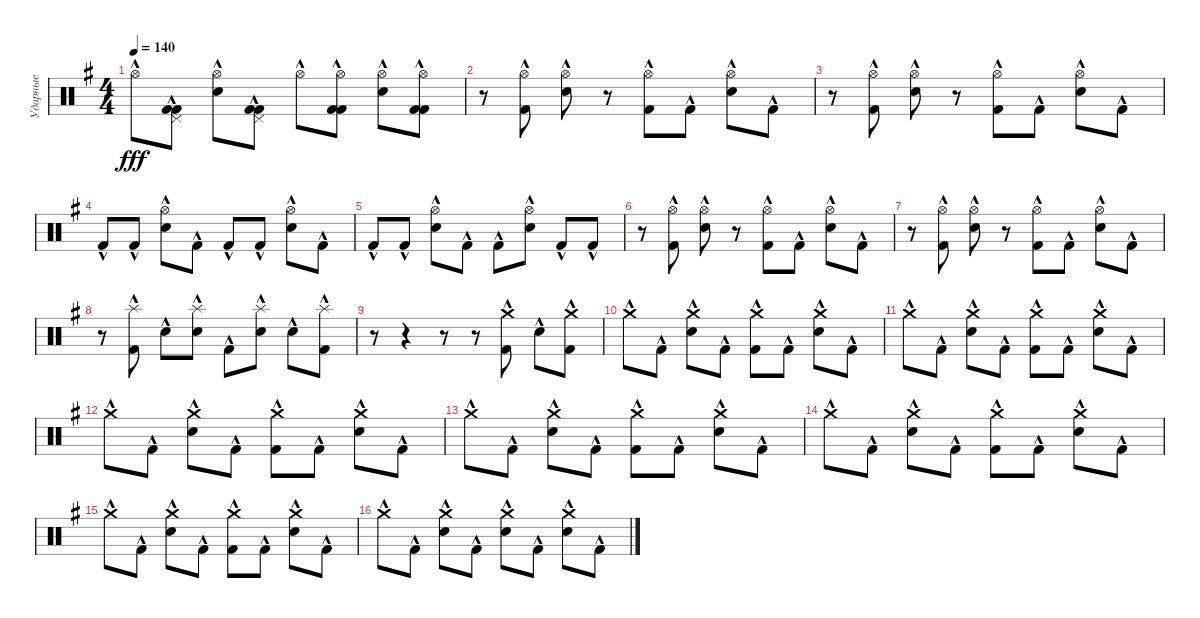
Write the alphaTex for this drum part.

\track ("Ударные" "Ударные") {instrument percussion}
\staff {score}
\articulation defaults
\ts (4 4)
\tempo 140
\clef neutral
\ks g "Hi-Hat (open)"{hac}.8{dy fff}
("Pedal Hi-Hat (hit)"{hac} "Kick (hit) 2"{hac} "Kick (hit) 2"{hac}).8 ("Hi-Hat (open)"{hac} "Electric Snare (hit)"{hac}).8 ("Pedal Hi-Hat (hit)"{hac} "Kick (hit) 2"{hac} "Kick (hit) 2"{hac}).8 "Hi-Hat (open)"{hac}.8 ("Hi-Hat (open)"{hac} "Kick (hit) 2"{hac} "Kick (hit) 2"{hac}).8 ("Hi-Hat (open)"{hac} "Electric Snare (hit)"{hac}).8 ("Hi-Hat (open)"{hac} "Kick (hit) 2"{hac} "Kick (hit) 2"{hac}).8 |
r.8 ("Hi-Hat (open)"{hac} "Kick (hit) 2"{hac}).8 ("Hi-Hat (open)"{hac} "Electric Snare (hit)"{hac}).8 r.8 ("Hi-Hat (open)"{hac} "Kick (hit) 2"{hac}).8 "Kick (hit) 2"{hac}.8 ("Hi-Hat (open)"{hac} "Electric Snare (hit)"{hac}).8 "Kick (hit) 2"{hac}.8 |
r.8 ("Hi-Hat (open)"{hac} "Kick (hit) 2"{hac}).8 ("Hi-Hat (open)"{hac} "Electric Snare (hit)"{hac}).8 r.8 ("Hi-Hat (open)"{hac} "Kick (hit) 2"{hac}).8 "Kick (hit) 2"{hac}.8 ("Hi-Hat (open)"{hac} "Electric Snare (hit)"{hac}).8 "Kick (hit) 2"{hac}.8 |
"Kick (hit) 2"{hac}.8 "Kick (hit) 2"{hac}.8 ("Hi-Hat (open)"{hac} "Electric Snare (hit)"{hac}).8 "Kick (hit) 2"{hac}.8 "Kick (hit) 2"{hac}.8 "Kick (hit) 2"{hac}.8 ("Hi-Hat (open)"{hac} "Electric Snare (hit)"{hac}).8 "Kick (hit) 2"{hac}.8 |
"Kick (hit) 2"{hac}.8 "Kick (hit) 2"{hac}.8 ("Hi-Hat (open)"{hac} "Electric Snare (hit)"{hac}).8 "Kick (hit) 2"{hac}.8 "Kick (hit) 2"{hac}.8 ("Hi-Hat (open)"{hac} "Electric Snare (hit)"{hac}).8 "Kick (hit) 2"{hac}.8 "Kick (hit) 2"{hac}.8 |
r.8 ("Hi-Hat (open)"{hac} "Kick (hit) 2"{hac}).8 ("Hi-Hat (open)"{hac} "Electric Snare (hit)"{hac}).8 r.8 ("Hi-Hat (open)"{hac} "Kick (hit) 2"{hac}).8 "Kick (hit) 2"{hac}.8 ("Hi-Hat (open)"{hac} "Electric Snare (hit)"{hac}).8 "Kick (hit) 2"{hac}.8 |
r.8 ("Hi-Hat (open)"{hac} "Kick (hit) 2"{hac}).8 ("Hi-Hat (open)"{hac} "Electric Snare (hit)"{hac}).8 r.8 ("Hi-Hat (open)"{hac} "Kick (hit) 2"{hac}).8 "Kick (hit) 2"{hac}.8 ("Hi-Hat (open)"{hac} "Electric Snare (hit)"{hac}).8 "Kick (hit) 2"{hac}.8 |
r.8 ("Splash (hit)"{hac} "Kick (hit) 2"{hac}).8 "Electric Snare (hit)"{hac}.8 ("Splash (hit)"{hac} "Electric Snare (hit)"{hac}).8 "Kick (hit) 2"{hac}.8 ("Splash (hit)"{hac} "Electric Snare (hit)"{hac}).8 "Electric Snare (hit)"{hac}.8 ("Splash (hit)"{hac} "Kick (hit) 2"{hac}).8 |
r.8 r.4 r.8 r.8 ("Crash medium (hit)"{hac} "Kick (hit) 2"{hac}).8 "Electric Snare (hit)"{hac}.8 ("Crash medium (hit)"{hac} "Kick (hit) 2"{hac}).8 |
"Crash medium (hit)"{hac}.8 "Kick (hit) 2"{hac}.8 ("Crash medium (hit)"{hac} "Electric Snare (hit)"{hac}).8 "Kick (hit) 2"{hac}.8 ("Crash medium (hit)"{hac} "Kick (hit) 2"{hac}).8 "Kick (hit) 2"{hac}.8 ("Crash medium (hit)"{hac} "Electric Snare (hit)"{hac}).8 "Kick (hit) 2"{hac}.8 |
"Crash medium (hit)"{hac}.8 "Kick (hit) 2"{hac}.8 ("Crash medium (hit)"{hac} "Electric Snare (hit)"{hac}).8 "Kick (hit) 2"{hac}.8 ("Crash medium (hit)"{hac} "Kick (hit) 2"{hac}).8 "Kick (hit) 2"{hac}.8 ("Crash medium (hit)"{hac} "Electric Snare (hit)"{hac}).8 "Kick (hit) 2"{hac}.8 |
"Crash medium (hit)"{hac}.8 "Kick (hit) 2"{hac}.8 ("Crash medium (hit)"{hac} "Electric Snare (hit)"{hac}).8 "Kick (hit) 2"{hac}.8 ("Crash medium (hit)"{hac} "Kick (hit) 2"{hac}).8 "Kick (hit) 2"{hac}.8 ("Crash medium (hit)"{hac} "Electric Snare (hit)"{hac}).8 "Kick (hit) 2"{hac}.8 |
"Crash medium (hit)"{hac}.8 "Kick (hit) 2"{hac}.8 ("Crash medium (hit)"{hac} "Electric Snare (hit)"{hac}).8 "Kick (hit) 2"{hac}.8 ("Crash medium (hit)"{hac} "Kick (hit) 2"{hac}).8 "Kick (hit) 2"{hac}.8 ("Crash medium (hit)"{hac} "Electric Snare (hit)"{hac}).8 "Kick (hit) 2"{hac}.8 |
"Crash medium (hit)"{hac}.8 "Kick (hit) 2"{hac}.8 ("Crash medium (hit)"{hac} "Electric Snare (hit)"{hac}).8 "Kick (hit) 2"{hac}.8 ("Crash medium (hit)"{hac} "Kick (hit) 2"{hac}).8 "Kick (hit) 2"{hac}.8 ("Crash medium (hit)"{hac} "Electric Snare (hit)"{hac}).8 "Kick (hit) 2"{hac}.8 |
"Crash medium (hit)"{hac}.8 "Kick (hit) 2"{hac}.8 ("Crash medium (hit)"{hac} "Electric Snare (hit)"{hac}).8 "Kick (hit) 2"{hac}.8 ("Crash medium (hit)"{hac} "Kick (hit) 2"{hac}).8 "Kick (hit) 2"{hac}.8 ("Crash medium (hit)"{hac} "Electric Snare (hit)"{hac}).8 "Kick (hit) 2"{hac}.8 |
"Crash medium (hit)"{hac}.8 "Kick (hit) 2"{hac}.8 ("Crash medium (hit)"{hac} "Electric Snare (hit)"{hac}).8 "Kick (hit) 2"{hac}.8 ("Crash medium (hit)"{hac} "Electric Snare (hit)"{hac}).8 "Kick (hit) 2"{hac}.8 ("Crash medium (hit)"{hac} "Electric Snare (hit)"{hac}).8 "Kick (hit) 2"{hac}.8
